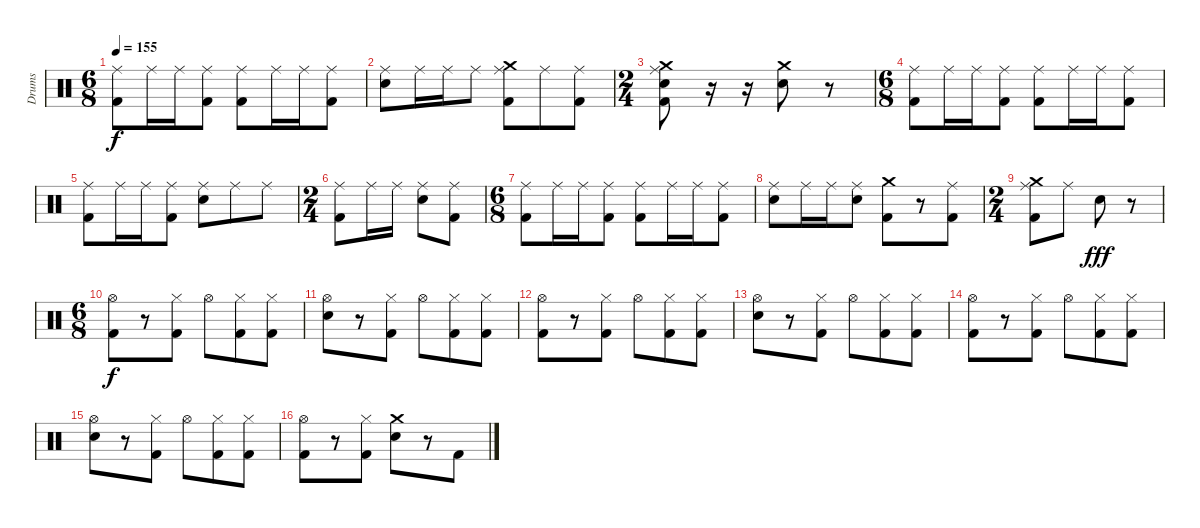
\track ("Drums" "Drums") {instrument percussion}
\staff {score}
\articulation defaults
\ts (6 8)
\tempo 155
\clef neutral
\ks c
("Ride (middle)" "Kick (hit) 2").8{dy f} "Ride (middle)".16 "Ride (middle)".16 ("Ride (middle)" "Kick (hit) 2").8 ("Ride (middle)" "Kick (hit) 2").8 "Ride (middle)".16 "Ride (middle)".16 ("Ride (middle)" "Kick (hit) 2").8 |
("Ride (middle)" "Electric Snare (hit)").8 "Ride (middle)".16 "Ride (middle)".16 "Ride (middle)".8 ("Crash medium (hit)" "Ride (middle)" "Kick (hit) 2").8 "Ride (middle)".8 ("Ride (middle)" "Kick (hit) 2").8 |
\ts (2 4)
("Crash medium (hit)" "Ride (middle)" "Electric Snare (hit)" "Kick (hit) 2").8 r.16 r.16 ("Crash medium (hit)" "Electric Snare (hit)").8 r.8 |
\ts (6 8)
("Ride (middle)" "Kick (hit) 2").8 "Ride (middle)".16 "Ride (middle)".16 ("Ride (middle)" "Kick (hit) 2").8 ("Ride (middle)" "Kick (hit) 2").8 "Ride (middle)".16 "Ride (middle)".16 ("Ride (middle)" "Kick (hit) 2").8 |
("Ride (middle)" "Kick (hit) 2").8 "Ride (middle)".16 "Ride (middle)".16 ("Ride (middle)" "Kick (hit) 2").8 ("Ride (middle)" "Electric Snare (hit)").8 "Ride (middle)".8 "Ride (middle)".8 |
\ts (2 4)
("Ride (middle)" "Kick (hit) 2").8 "Ride (middle)".16 "Ride (middle)".16 ("Ride (middle)" "Electric Snare (hit)").8 ("Ride (middle)" "Kick (hit) 2").8 |
\ts (6 8)
("Ride (middle)" "Kick (hit) 2").8 "Ride (middle)".16 "Ride (middle)".16 ("Ride (middle)" "Kick (hit) 2").8 ("Ride (middle)" "Kick (hit) 2").8 "Ride (middle)".16 "Ride (middle)".16 ("Ride (middle)" "Kick (hit) 2").8 |
("Ride (middle)" "Electric Snare (hit)").8 "Ride (middle)".16 "Ride (middle)".16 ("Ride (middle)" "Electric Snare (hit)").8 ("Crash medium (hit)" "Kick (hit) 2").8 r.8 ("Ride (middle)" "Kick (hit) 2").8 |
\ts (2 4)
("Crash medium (hit)" "Ride (middle)" "Kick (hit) 2").8 "Ride (middle)".8 "Electric Snare (hit)".8{dy fff} r.8 |
\ts (6 8)
("Hi-Hat (open)" "Kick (hit) 2").8{dy f} r.8 ("Hi-Hat (closed)" "Kick (hit) 2").8 "Hi-Hat (open)".8 ("Hi-Hat (closed)" "Kick (hit) 2").8 ("Hi-Hat (closed)" "Kick (hit) 2").8 |
("Hi-Hat (open)" "Electric Snare (hit)").8 r.8 ("Hi-Hat (closed)" "Kick (hit) 2").8 "Hi-Hat (open)".8 ("Hi-Hat (closed)" "Kick (hit) 2").8 ("Hi-Hat (closed)" "Kick (hit) 2").8 |
("Hi-Hat (open)" "Kick (hit) 2").8 r.8 ("Hi-Hat (closed)" "Kick (hit) 2").8 "Hi-Hat (open)".8 ("Hi-Hat (closed)" "Kick (hit) 2").8 ("Hi-Hat (closed)" "Kick (hit) 2").8 |
("Hi-Hat (open)" "Electric Snare (hit)").8 r.8 ("Hi-Hat (closed)" "Kick (hit) 2").8 "Hi-Hat (open)".8 ("Hi-Hat (closed)" "Kick (hit) 2").8 ("Hi-Hat (closed)" "Kick (hit) 2").8 |
("Hi-Hat (open)" "Kick (hit) 2").8 r.8 ("Hi-Hat (closed)" "Kick (hit) 2").8 "Hi-Hat (open)".8 ("Hi-Hat (closed)" "Kick (hit) 2").8 ("Hi-Hat (closed)" "Kick (hit) 2").8 |
("Hi-Hat (open)" "Electric Snare (hit)").8 r.8 ("Hi-Hat (closed)" "Kick (hit) 2").8 "Hi-Hat (open)".8 ("Hi-Hat (closed)" "Kick (hit) 2").8 ("Hi-Hat (closed)" "Kick (hit) 2").8 |
("Hi-Hat (open)" "Kick (hit) 2").8 r.8 ("Hi-Hat (closed)" "Kick (hit) 2").8 ("Crash medium (hit)" "Electric Snare (hit)").8 r.8 "Kick (hit) 2".8
